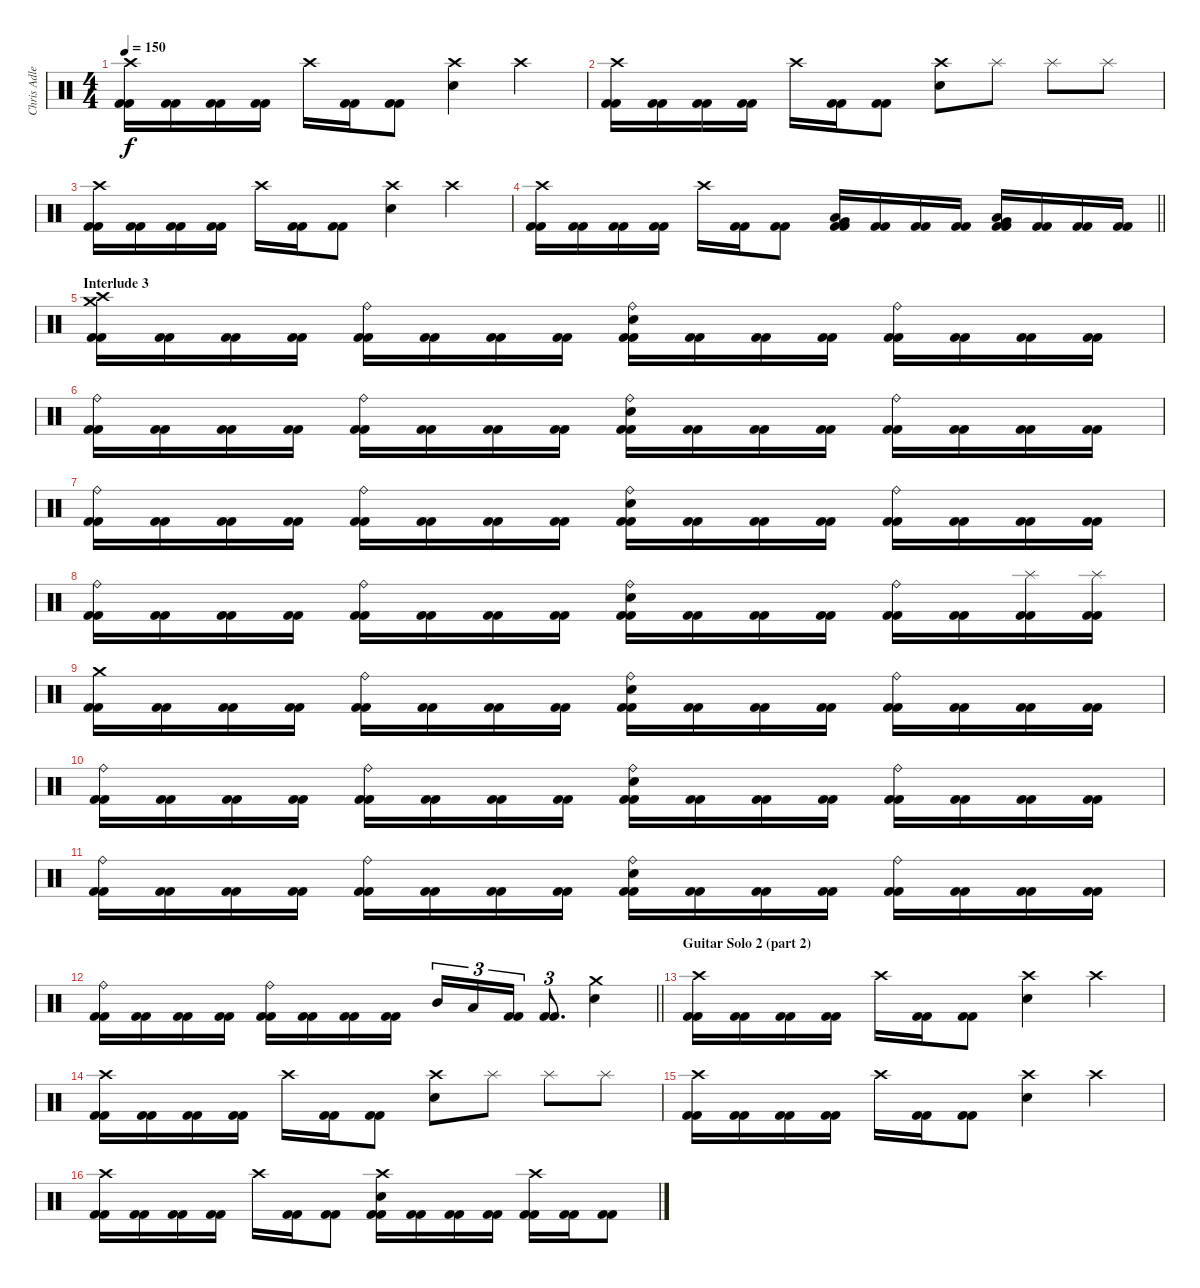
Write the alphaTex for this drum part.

\track ("Chris Adler" "Chris Adle") {instrument percussion}
\staff {score}
\articulation defaults
\ts (4 4)
\tempo 150
\clef neutral
\ks c
("Crash high (hit)" "Kick (hit) 2" "Kick (hit) 2").16{dy f} ("Kick (hit) 2" "Kick (hit) 2").16 ("Kick (hit) 2" "Kick (hit) 2").16 ("Kick (hit) 2" "Kick (hit) 2").16 "Crash high (hit)".16 ("Kick (hit) 2" "Kick (hit) 2").16 ("Kick (hit) 2" "Kick (hit) 2").8 ("Crash high (hit)" "Electric Snare (hit)").4 "Crash high (hit)".4 |
("Crash high (hit)" "Kick (hit) 2" "Kick (hit) 2").16 ("Kick (hit) 2" "Kick (hit) 2").16 ("Kick (hit) 2" "Kick (hit) 2").16 ("Kick (hit) 2" "Kick (hit) 2").16 "Crash high (hit)".16 ("Kick (hit) 2" "Kick (hit) 2").16 ("Kick (hit) 2" "Kick (hit) 2").8 ("Crash high (hit)" "Electric Snare (hit)").8 "Splash (hit)".8 "Splash (hit)".8 "Splash (hit)".8 |
("Crash high (hit)" "Kick (hit) 2" "Kick (hit) 2").16 ("Kick (hit) 2" "Kick (hit) 2").16 ("Kick (hit) 2" "Kick (hit) 2").16 ("Kick (hit) 2" "Kick (hit) 2").16 "Crash high (hit)".16 ("Kick (hit) 2" "Kick (hit) 2").16 ("Kick (hit) 2" "Kick (hit) 2").8 ("Crash high (hit)" "Electric Snare (hit)").4 "Crash high (hit)".4 |
\barLineRight lightlight
("Crash high (hit)" "Kick (hit) 2" "Kick (hit) 2").16 ("Kick (hit) 2" "Kick (hit) 2").16 ("Kick (hit) 2" "Kick (hit) 2").16 ("Kick (hit) 2" "Kick (hit) 2").16 "Crash high (hit)".16 ("Kick (hit) 2" "Kick (hit) 2").16 ("Kick (hit) 2" "Kick (hit) 2").8 ("Low Tom (hit)" "Very Low Tom (hit)" "Kick (hit) 2" "Kick (hit) 2").16 ("Kick (hit) 2" "Kick (hit) 2").16 ("Kick (hit) 2" "Kick (hit) 2").16 ("Kick (hit) 2" "Kick (hit) 2").16 ("Very Low Tom (hit)" "Low Floor Tom (hit)" "Kick (hit) 2" "Kick (hit) 2").16 ("Kick (hit) 2" "Kick (hit) 2").16 ("Kick (hit) 2" "Kick (hit) 2").16 ("Kick (hit) 2" "Kick (hit) 2").16 |
\section ("" "Interlude 3")
("Crash medium (hit)" "Crash high (hit)" "Kick (hit) 2" "Kick (hit) 2").16 ("Kick (hit) 2" "Kick (hit) 2").16 ("Kick (hit) 2" "Kick (hit) 2").16 ("Kick (hit) 2" "Kick (hit) 2").16 ("Ride (bell)" "Kick (hit) 2" "Kick (hit) 2").16 ("Kick (hit) 2" "Kick (hit) 2").16 ("Kick (hit) 2" "Kick (hit) 2").16 ("Kick (hit) 2" "Kick (hit) 2").16 ("Ride (bell)" "Electric Snare (hit)" "Kick (hit) 2" "Kick (hit) 2").16 ("Kick (hit) 2" "Kick (hit) 2").16 ("Kick (hit) 2" "Kick (hit) 2").16 ("Kick (hit) 2" "Kick (hit) 2").16 ("Ride (bell)" "Kick (hit) 2" "Kick (hit) 2").16 ("Kick (hit) 2" "Kick (hit) 2").16 ("Kick (hit) 2" "Kick (hit) 2").16 ("Kick (hit) 2" "Kick (hit) 2").16 |
("Ride (bell)" "Kick (hit) 2" "Kick (hit) 2").16 ("Kick (hit) 2" "Kick (hit) 2").16 ("Kick (hit) 2" "Kick (hit) 2").16 ("Kick (hit) 2" "Kick (hit) 2").16 ("Ride (bell)" "Kick (hit) 2" "Kick (hit) 2").16 ("Kick (hit) 2" "Kick (hit) 2").16 ("Kick (hit) 2" "Kick (hit) 2").16 ("Kick (hit) 2" "Kick (hit) 2").16 ("Ride (bell)" "Electric Snare (hit)" "Kick (hit) 2" "Kick (hit) 2").16 ("Kick (hit) 2" "Kick (hit) 2").16 ("Kick (hit) 2" "Kick (hit) 2").16 ("Kick (hit) 2" "Kick (hit) 2").16 ("Ride (bell)" "Kick (hit) 2" "Kick (hit) 2").16 ("Kick (hit) 2" "Kick (hit) 2").16 ("Kick (hit) 2" "Kick (hit) 2").16 ("Kick (hit) 2" "Kick (hit) 2").16 |
("Ride (bell)" "Kick (hit) 2" "Kick (hit) 2").16 ("Kick (hit) 2" "Kick (hit) 2").16 ("Kick (hit) 2" "Kick (hit) 2").16 ("Kick (hit) 2" "Kick (hit) 2").16 ("Ride (bell)" "Kick (hit) 2" "Kick (hit) 2").16 ("Kick (hit) 2" "Kick (hit) 2").16 ("Kick (hit) 2" "Kick (hit) 2").16 ("Kick (hit) 2" "Kick (hit) 2").16 ("Ride (bell)" "Electric Snare (hit)" "Kick (hit) 2" "Kick (hit) 2").16 ("Kick (hit) 2" "Kick (hit) 2").16 ("Kick (hit) 2" "Kick (hit) 2").16 ("Kick (hit) 2" "Kick (hit) 2").16 ("Ride (bell)" "Kick (hit) 2" "Kick (hit) 2").16 ("Kick (hit) 2" "Kick (hit) 2").16 ("Kick (hit) 2" "Kick (hit) 2").16 ("Kick (hit) 2" "Kick (hit) 2").16 |
("Ride (bell)" "Kick (hit) 2" "Kick (hit) 2").16 ("Kick (hit) 2" "Kick (hit) 2").16 ("Kick (hit) 2" "Kick (hit) 2").16 ("Kick (hit) 2" "Kick (hit) 2").16 ("Ride (bell)" "Kick (hit) 2" "Kick (hit) 2").16 ("Kick (hit) 2" "Kick (hit) 2").16 ("Kick (hit) 2" "Kick (hit) 2").16 ("Kick (hit) 2" "Kick (hit) 2").16 ("Ride (bell)" "Electric Snare (hit)" "Kick (hit) 2" "Kick (hit) 2").16 ("Kick (hit) 2" "Kick (hit) 2").16 ("Kick (hit) 2" "Kick (hit) 2").16 ("Kick (hit) 2" "Kick (hit) 2").16 ("Ride (bell)" "Kick (hit) 2" "Kick (hit) 2").16 ("Kick (hit) 2" "Kick (hit) 2").16 ("Splash (hit)" "Kick (hit) 2" "Kick (hit) 2").16 ("Splash (hit)" "Kick (hit) 2" "Kick (hit) 2").16 |
("Crash medium (hit)" "Kick (hit) 2" "Kick (hit) 2").16 ("Kick (hit) 2" "Kick (hit) 2").16 ("Kick (hit) 2" "Kick (hit) 2").16 ("Kick (hit) 2" "Kick (hit) 2").16 ("Ride (bell)" "Kick (hit) 2" "Kick (hit) 2").16 ("Kick (hit) 2" "Kick (hit) 2").16 ("Kick (hit) 2" "Kick (hit) 2").16 ("Kick (hit) 2" "Kick (hit) 2").16 ("Ride (bell)" "Electric Snare (hit)" "Kick (hit) 2" "Kick (hit) 2").16 ("Kick (hit) 2" "Kick (hit) 2").16 ("Kick (hit) 2" "Kick (hit) 2").16 ("Kick (hit) 2" "Kick (hit) 2").16 ("Ride (bell)" "Kick (hit) 2" "Kick (hit) 2").16 ("Kick (hit) 2" "Kick (hit) 2").16 ("Kick (hit) 2" "Kick (hit) 2").16 ("Kick (hit) 2" "Kick (hit) 2").16 |
("Ride (bell)" "Kick (hit) 2" "Kick (hit) 2").16 ("Kick (hit) 2" "Kick (hit) 2").16 ("Kick (hit) 2" "Kick (hit) 2").16 ("Kick (hit) 2" "Kick (hit) 2").16 ("Ride (bell)" "Kick (hit) 2" "Kick (hit) 2").16 ("Kick (hit) 2" "Kick (hit) 2").16 ("Kick (hit) 2" "Kick (hit) 2").16 ("Kick (hit) 2" "Kick (hit) 2").16 ("Ride (bell)" "Electric Snare (hit)" "Kick (hit) 2" "Kick (hit) 2").16 ("Kick (hit) 2" "Kick (hit) 2").16 ("Kick (hit) 2" "Kick (hit) 2").16 ("Kick (hit) 2" "Kick (hit) 2").16 ("Ride (bell)" "Kick (hit) 2" "Kick (hit) 2").16 ("Kick (hit) 2" "Kick (hit) 2").16 ("Kick (hit) 2" "Kick (hit) 2").16 ("Kick (hit) 2" "Kick (hit) 2").16 |
("Ride (bell)" "Kick (hit) 2" "Kick (hit) 2").16 ("Kick (hit) 2" "Kick (hit) 2").16 ("Kick (hit) 2" "Kick (hit) 2").16 ("Kick (hit) 2" "Kick (hit) 2").16 ("Ride (bell)" "Kick (hit) 2" "Kick (hit) 2").16 ("Kick (hit) 2" "Kick (hit) 2").16 ("Kick (hit) 2" "Kick (hit) 2").16 ("Kick (hit) 2" "Kick (hit) 2").16 ("Ride (bell)" "Electric Snare (hit)" "Kick (hit) 2" "Kick (hit) 2").16 ("Kick (hit) 2" "Kick (hit) 2").16 ("Kick (hit) 2" "Kick (hit) 2").16 ("Kick (hit) 2" "Kick (hit) 2").16 ("Ride (bell)" "Kick (hit) 2" "Kick (hit) 2").16 ("Kick (hit) 2" "Kick (hit) 2").16 ("Kick (hit) 2" "Kick (hit) 2").16 ("Kick (hit) 2" "Kick (hit) 2").16 |
\barLineRight lightlight
("Ride (bell)" "Kick (hit) 2" "Kick (hit) 2").16 ("Kick (hit) 2" "Kick (hit) 2").16 ("Kick (hit) 2" "Kick (hit) 2").16 ("Kick (hit) 2" "Kick (hit) 2").16 ("Ride (bell)" "Kick (hit) 2" "Kick (hit) 2").16 ("Kick (hit) 2" "Kick (hit) 2").16 ("Kick (hit) 2" "Kick (hit) 2").16 ("Kick (hit) 2" "Kick (hit) 2").16 "Mid Tom (hit)".16{tu (3 2)} "Low Tom (hit)".16{tu (3 2)} ("Kick (hit) 2" "Kick (hit) 2").16{tu (3 2)} ("Kick (hit) 2" "Kick (hit) 2").8{d tu (3 2)} ("Crash medium (hit)" "Electric Snare (hit)").4 |
\section ("" "Guitar Solo 2 (part 2)")
("Crash high (hit)" "Kick (hit) 2" "Kick (hit) 2").16 ("Kick (hit) 2" "Kick (hit) 2").16 ("Kick (hit) 2" "Kick (hit) 2").16 ("Kick (hit) 2" "Kick (hit) 2").16 "Crash high (hit)".16 ("Kick (hit) 2" "Kick (hit) 2").16 ("Kick (hit) 2" "Kick (hit) 2").8 ("Crash high (hit)" "Electric Snare (hit)").4 "Crash high (hit)".4 |
("Crash high (hit)" "Kick (hit) 2" "Kick (hit) 2").16 ("Kick (hit) 2" "Kick (hit) 2").16 ("Kick (hit) 2" "Kick (hit) 2").16 ("Kick (hit) 2" "Kick (hit) 2").16 "Crash high (hit)".16 ("Kick (hit) 2" "Kick (hit) 2").16 ("Kick (hit) 2" "Kick (hit) 2").8 ("Crash high (hit)" "Electric Snare (hit)").8 "Splash (hit)".8 "Splash (hit)".8 "Splash (hit)".8 |
("Crash high (hit)" "Kick (hit) 2" "Kick (hit) 2").16 ("Kick (hit) 2" "Kick (hit) 2").16 ("Kick (hit) 2" "Kick (hit) 2").16 ("Kick (hit) 2" "Kick (hit) 2").16 "Crash high (hit)".16 ("Kick (hit) 2" "Kick (hit) 2").16 ("Kick (hit) 2" "Kick (hit) 2").8 ("Crash high (hit)" "Electric Snare (hit)").4 "Crash high (hit)".4 |
("Crash high (hit)" "Kick (hit) 2" "Kick (hit) 2").16 ("Kick (hit) 2" "Kick (hit) 2").16 ("Kick (hit) 2" "Kick (hit) 2").16 ("Kick (hit) 2" "Kick (hit) 2").16 "Crash high (hit)".16 ("Kick (hit) 2" "Kick (hit) 2").16 ("Kick (hit) 2" "Kick (hit) 2").8 ("Crash high (hit)" "Electric Snare (hit)" "Kick (hit) 2" "Kick (hit) 2").16 ("Kick (hit) 2" "Kick (hit) 2").16 ("Kick (hit) 2" "Kick (hit) 2").16 ("Kick (hit) 2" "Kick (hit) 2").16 ("Crash high (hit)" "Kick (hit) 2" "Kick (hit) 2").16 ("Kick (hit) 2" "Kick (hit) 2").16 ("Kick (hit) 2" "Kick (hit) 2").8
